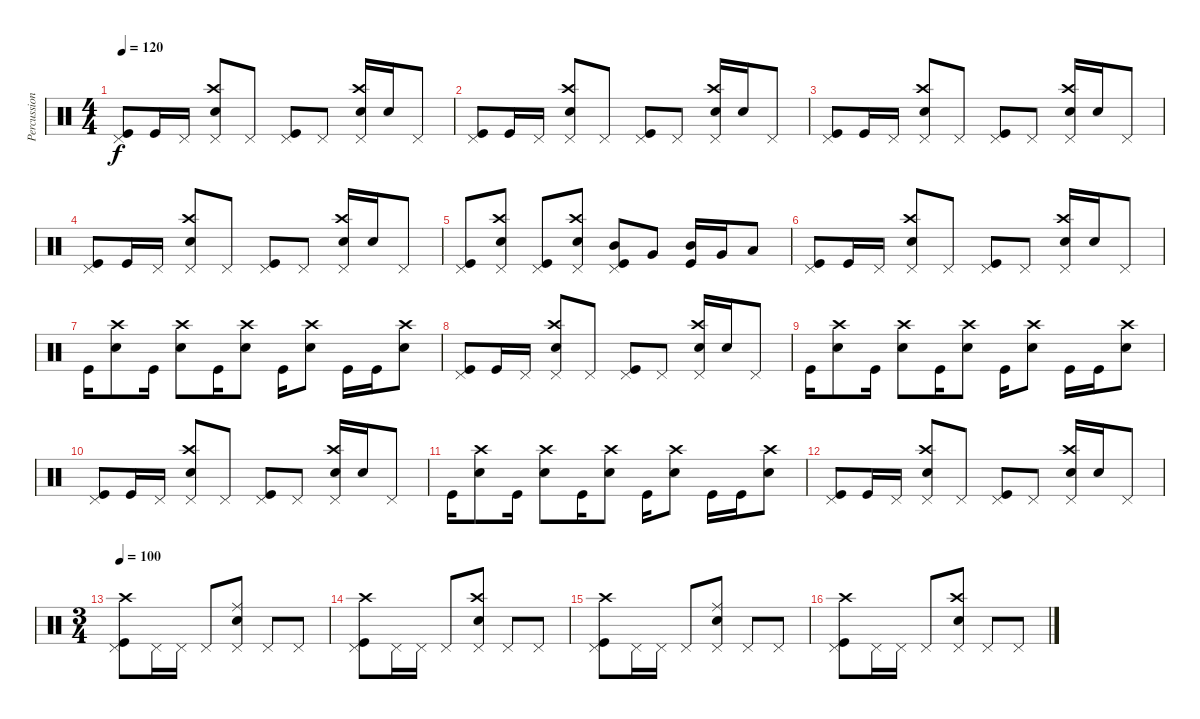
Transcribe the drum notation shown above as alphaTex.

\track ("Percussion" "Percussion") {instrument percussion}
\staff {score}
\articulation defaults
\ts (4 4)
\tempo 120
\clef neutral
\ks c
("Pedal Hi-Hat (hit)" "Kick (hit)").8{dy f} "Kick (hit)".16 "Pedal Hi-Hat (hit)".16 ("Crash high (hit)" "Pedal Hi-Hat (hit)" "Electric Snare (hit)").8 "Pedal Hi-Hat (hit)".8 ("Pedal Hi-Hat (hit)" "Kick (hit)").8 "Pedal Hi-Hat (hit)".8 ("Crash high (hit)" "Pedal Hi-Hat (hit)" "Electric Snare (hit)").16 "Electric Snare (hit)".16 "Pedal Hi-Hat (hit)".8 |
("Pedal Hi-Hat (hit)" "Kick (hit)").8 "Kick (hit)".16 "Pedal Hi-Hat (hit)".16 ("Crash high (hit)" "Pedal Hi-Hat (hit)" "Electric Snare (hit)").8 "Pedal Hi-Hat (hit)".8 ("Pedal Hi-Hat (hit)" "Kick (hit)").8 "Pedal Hi-Hat (hit)".8 ("Crash high (hit)" "Pedal Hi-Hat (hit)" "Electric Snare (hit)").16 "Electric Snare (hit)".16 "Pedal Hi-Hat (hit)".8 |
("Pedal Hi-Hat (hit)" "Kick (hit)").8 "Kick (hit)".16 "Pedal Hi-Hat (hit)".16 ("Crash high (hit)" "Pedal Hi-Hat (hit)" "Electric Snare (hit)").8 "Pedal Hi-Hat (hit)".8 ("Pedal Hi-Hat (hit)" "Kick (hit)").8 "Pedal Hi-Hat (hit)".8 ("Crash high (hit)" "Pedal Hi-Hat (hit)" "Electric Snare (hit)").16 "Electric Snare (hit)".16 "Pedal Hi-Hat (hit)".8 |
("Pedal Hi-Hat (hit)" "Kick (hit)").8 "Kick (hit)".16 "Pedal Hi-Hat (hit)".16 ("Crash high (hit)" "Pedal Hi-Hat (hit)" "Electric Snare (hit)").8 "Pedal Hi-Hat (hit)".8 ("Pedal Hi-Hat (hit)" "Kick (hit)").8 "Pedal Hi-Hat (hit)".8 ("Crash high (hit)" "Pedal Hi-Hat (hit)" "Electric Snare (hit)").16 "Electric Snare (hit)".16 "Pedal Hi-Hat (hit)".8 |
("Pedal Hi-Hat (hit)" "Kick (hit)").8 ("Crash high (hit)" "Pedal Hi-Hat (hit)" "Electric Snare (hit)").8 ("Pedal Hi-Hat (hit)" "Kick (hit)").8 ("Crash high (hit)" "Pedal Hi-Hat (hit)" "Electric Snare (hit)").8 ("Mid Tom (hit)" "Pedal Hi-Hat (hit)" "Kick (hit)").8 "Very Low Tom (hit)".8 ("Mid Tom (hit)" "Kick (hit)").16 "Very Low Tom (hit)".16 "Low Floor Tom (hit)".8 |
("Pedal Hi-Hat (hit)" "Kick (hit)").8 "Kick (hit)".16 "Pedal Hi-Hat (hit)".16 ("Crash high (hit)" "Pedal Hi-Hat (hit)" "Electric Snare (hit)").8 "Pedal Hi-Hat (hit)".8 ("Pedal Hi-Hat (hit)" "Kick (hit)").8 "Pedal Hi-Hat (hit)".8 ("Crash high (hit)" "Pedal Hi-Hat (hit)" "Electric Snare (hit)").16 "Electric Snare (hit)".16 "Pedal Hi-Hat (hit)".8 |
"Kick (hit)".16 ("Crash high (hit)" "Electric Snare (hit)").8 "Kick (hit)".16 ("Crash high (hit)" "Electric Snare (hit)").8 "Kick (hit)".16 ("Crash high (hit)" "Electric Snare (hit)").8 "Kick (hit)".16 ("Crash high (hit)" "Electric Snare (hit)").8 "Kick (hit)".16 "Kick (hit)".16 ("Crash high (hit)" "Electric Snare (hit)").8 |
("Pedal Hi-Hat (hit)" "Kick (hit)").8 "Kick (hit)".16 "Pedal Hi-Hat (hit)".16 ("Crash high (hit)" "Pedal Hi-Hat (hit)" "Electric Snare (hit)").8 "Pedal Hi-Hat (hit)".8 ("Pedal Hi-Hat (hit)" "Kick (hit)").8 "Pedal Hi-Hat (hit)".8 ("Crash high (hit)" "Pedal Hi-Hat (hit)" "Electric Snare (hit)").16 "Electric Snare (hit)".16 "Pedal Hi-Hat (hit)".8 |
"Kick (hit)".16 ("Crash high (hit)" "Electric Snare (hit)").8 "Kick (hit)".16 ("Crash high (hit)" "Electric Snare (hit)").8 "Kick (hit)".16 ("Crash high (hit)" "Electric Snare (hit)").8 "Kick (hit)".16 ("Crash high (hit)" "Electric Snare (hit)").8 "Kick (hit)".16 "Kick (hit)".16 ("Crash high (hit)" "Electric Snare (hit)").8 |
("Pedal Hi-Hat (hit)" "Kick (hit)").8 "Kick (hit)".16 "Pedal Hi-Hat (hit)".16 ("Crash high (hit)" "Pedal Hi-Hat (hit)" "Electric Snare (hit)").8 "Pedal Hi-Hat (hit)".8 ("Pedal Hi-Hat (hit)" "Kick (hit)").8 "Pedal Hi-Hat (hit)".8 ("Crash high (hit)" "Pedal Hi-Hat (hit)" "Electric Snare (hit)").16 "Electric Snare (hit)".16 "Pedal Hi-Hat (hit)".8 |
"Kick (hit)".16 ("Crash high (hit)" "Electric Snare (hit)").8 "Kick (hit)".16 ("Crash high (hit)" "Electric Snare (hit)").8 "Kick (hit)".16 ("Crash high (hit)" "Electric Snare (hit)").8 "Kick (hit)".16 ("Crash high (hit)" "Electric Snare (hit)").8 "Kick (hit)".16 "Kick (hit)".16 ("Crash high (hit)" "Electric Snare (hit)").8 |
("Pedal Hi-Hat (hit)" "Kick (hit)").8 "Kick (hit)".16 "Pedal Hi-Hat (hit)".16 ("Crash high (hit)" "Pedal Hi-Hat (hit)" "Electric Snare (hit)").8 "Pedal Hi-Hat (hit)".8 ("Pedal Hi-Hat (hit)" "Kick (hit)").8 "Pedal Hi-Hat (hit)".8 ("Crash high (hit)" "Pedal Hi-Hat (hit)" "Electric Snare (hit)").16 "Electric Snare (hit)".16 "Pedal Hi-Hat (hit)".8 |
\ts (3 4)
\tempo 100
("Pedal Hi-Hat (hit)" "Crash high (hit)" "Kick (hit)").8 "Pedal Hi-Hat (hit)".16 "Pedal Hi-Hat (hit)".16 "Pedal Hi-Hat (hit)".8 ("Pedal Hi-Hat (hit)" "Electric Snare (hit)" "Ride (middle)").8 "Pedal Hi-Hat (hit)".8 "Pedal Hi-Hat (hit)".8 |
("Pedal Hi-Hat (hit)" "Crash high (hit)" "Kick (hit)").8 "Pedal Hi-Hat (hit)".16 "Pedal Hi-Hat (hit)".16 "Pedal Hi-Hat (hit)".8 ("Pedal Hi-Hat (hit)" "Electric Snare (hit)" "Crash high (hit)").8 "Pedal Hi-Hat (hit)".8 "Pedal Hi-Hat (hit)".8 |
("Pedal Hi-Hat (hit)" "Crash high (hit)" "Kick (hit)").8 "Pedal Hi-Hat (hit)".16 "Pedal Hi-Hat (hit)".16 "Pedal Hi-Hat (hit)".8 ("Pedal Hi-Hat (hit)" "Electric Snare (hit)" "Ride (middle)").8 "Pedal Hi-Hat (hit)".8 "Pedal Hi-Hat (hit)".8 |
("Pedal Hi-Hat (hit)" "Crash high (hit)" "Kick (hit)").8 "Pedal Hi-Hat (hit)".16 "Pedal Hi-Hat (hit)".16 "Pedal Hi-Hat (hit)".8 ("Pedal Hi-Hat (hit)" "Electric Snare (hit)" "Crash high (hit)").8 "Pedal Hi-Hat (hit)".8 "Pedal Hi-Hat (hit)".8
